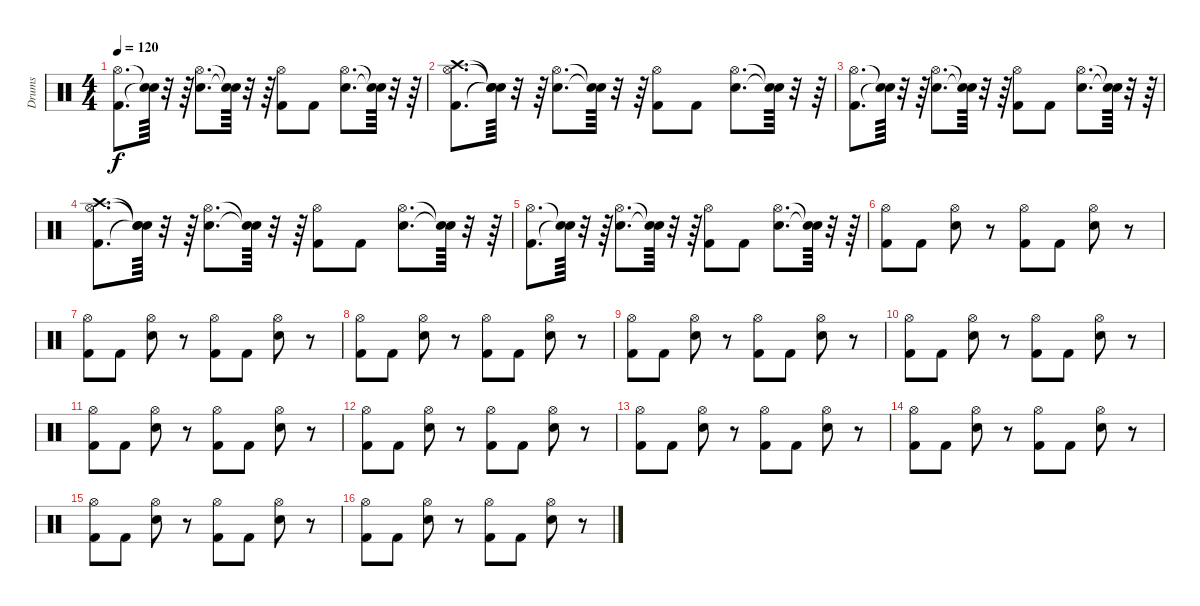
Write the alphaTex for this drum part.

\track ("Drums" "Drums") {instrument percussion}
\staff {score}
\articulation defaults
\ts (4 4)
\tempo 120
\clef neutral
\ks c
("Kick (hit) 2" "Hi-Hat (open)").8{d dy f} ("Snare (hit)"{t} "Snare (hit)"{t}).64 r.32 r.64 ("Snare (hit) 2" "Hi-Hat (open)").8{d} ("Snare (hit)"{t} "Snare (hit)"{t}).64 r.32 r.64 ("Kick (hit) 2" "Hi-Hat (open)").8 "Kick (hit) 2".8 ("Snare (hit) 2" "Hi-Hat (open)").8{d} ("Snare (hit)"{t} "Snare (hit)"{t}).64 r.32 r.64 |
("Kick (hit) 2" "Hi-Hat (open)" "Crash high (hit)").8{d} ("Snare (hit)"{t} "Snare (hit)"{t} "Snare (hit)"{t}).64 r.32 r.64 ("Snare (hit) 2" "Hi-Hat (open)").8{d} ("Snare (hit)"{t} "Snare (hit)"{t}).64 r.32 r.64 ("Kick (hit) 2" "Hi-Hat (open)").8 "Kick (hit) 2".8 ("Snare (hit) 2" "Hi-Hat (open)").8{d} ("Snare (hit)"{t} "Snare (hit)"{t}).64 r.32 r.64 |
("Kick (hit) 2" "Hi-Hat (open)").8{d} ("Snare (hit)"{t} "Snare (hit)"{t}).64 r.32 r.64 ("Snare (hit) 2" "Hi-Hat (open)").8{d} ("Snare (hit)"{t} "Snare (hit)"{t}).64 r.32 r.64 ("Kick (hit) 2" "Hi-Hat (open)").8 "Kick (hit) 2".8 ("Snare (hit) 2" "Hi-Hat (open)").8{d} ("Snare (hit)"{t} "Snare (hit)"{t}).64 r.32 r.64 |
("Kick (hit) 2" "Hi-Hat (open)" "Crash high (hit)").8{d} ("Snare (hit)"{t} "Snare (hit)"{t} "Snare (hit)"{t}).64 r.32 r.64 ("Snare (hit) 2" "Hi-Hat (open)").8{d} ("Snare (hit)"{t} "Snare (hit)"{t}).64 r.32 r.64 ("Kick (hit) 2" "Hi-Hat (open)").8 "Kick (hit) 2".8 ("Snare (hit) 2" "Hi-Hat (open)").8{d} ("Snare (hit)"{t} "Snare (hit)"{t}).64 r.32 r.64 |
("Kick (hit) 2" "Hi-Hat (open)").8{d} ("Snare (hit)"{t} "Snare (hit)"{t}).64 r.32 r.64 ("Snare (hit) 2" "Hi-Hat (open)").8{d} ("Snare (hit)"{t} "Snare (hit)"{t}).64 r.32 r.64 ("Kick (hit) 2" "Hi-Hat (open)").8 "Kick (hit) 2".8 ("Snare (hit) 2" "Hi-Hat (open)").8{d} ("Snare (hit)"{t} "Snare (hit)"{t}).64 r.32 r.64 |
("Kick (hit) 2" "Hi-Hat (open)").8 "Kick (hit) 2".8 ("Snare (hit) 2" "Hi-Hat (open)").8 r.8 ("Kick (hit) 2" "Hi-Hat (open)").8 "Kick (hit) 2".8 ("Snare (hit) 2" "Hi-Hat (open)").8 r.8 |
("Kick (hit) 2" "Hi-Hat (open)").8 "Kick (hit) 2".8 ("Snare (hit) 2" "Hi-Hat (open)").8 r.8 ("Kick (hit) 2" "Hi-Hat (open)").8 "Kick (hit) 2".8 ("Snare (hit) 2" "Hi-Hat (open)").8 r.8 |
("Kick (hit) 2" "Hi-Hat (open)").8 "Kick (hit) 2".8 ("Snare (hit) 2" "Hi-Hat (open)").8 r.8 ("Kick (hit) 2" "Hi-Hat (open)").8 "Kick (hit) 2".8 ("Snare (hit) 2" "Hi-Hat (open)").8 r.8 |
("Kick (hit) 2" "Hi-Hat (open)").8 "Kick (hit) 2".8 ("Snare (hit) 2" "Hi-Hat (open)").8 r.8 ("Kick (hit) 2" "Hi-Hat (open)").8 "Kick (hit) 2".8 ("Snare (hit) 2" "Hi-Hat (open)").8 r.8 |
("Kick (hit) 2" "Hi-Hat (open)").8 "Kick (hit) 2".8 ("Snare (hit) 2" "Hi-Hat (open)").8 r.8 ("Kick (hit) 2" "Hi-Hat (open)").8 "Kick (hit) 2".8 ("Snare (hit) 2" "Hi-Hat (open)").8 r.8 |
("Kick (hit) 2" "Hi-Hat (open)").8 "Kick (hit) 2".8 ("Snare (hit) 2" "Hi-Hat (open)").8 r.8 ("Kick (hit) 2" "Hi-Hat (open)").8 "Kick (hit) 2".8 ("Snare (hit) 2" "Hi-Hat (open)").8 r.8 |
("Kick (hit) 2" "Hi-Hat (open)").8 "Kick (hit) 2".8 ("Snare (hit) 2" "Hi-Hat (open)").8 r.8 ("Kick (hit) 2" "Hi-Hat (open)").8 "Kick (hit) 2".8 ("Snare (hit) 2" "Hi-Hat (open)").8 r.8 |
("Kick (hit) 2" "Hi-Hat (open)").8 "Kick (hit) 2".8 ("Snare (hit) 2" "Hi-Hat (open)").8 r.8 ("Kick (hit) 2" "Hi-Hat (open)").8 "Kick (hit) 2".8 ("Snare (hit) 2" "Hi-Hat (open)").8 r.8 |
("Kick (hit) 2" "Hi-Hat (open)").8 "Kick (hit) 2".8 ("Snare (hit) 2" "Hi-Hat (open)").8 r.8 ("Kick (hit) 2" "Hi-Hat (open)").8 "Kick (hit) 2".8 ("Snare (hit) 2" "Hi-Hat (open)").8 r.8 |
("Kick (hit) 2" "Hi-Hat (open)").8 "Kick (hit) 2".8 ("Snare (hit) 2" "Hi-Hat (open)").8 r.8 ("Kick (hit) 2" "Hi-Hat (open)").8 "Kick (hit) 2".8 ("Snare (hit) 2" "Hi-Hat (open)").8 r.8 |
("Kick (hit) 2" "Hi-Hat (open)").8 "Kick (hit) 2".8 ("Snare (hit) 2" "Hi-Hat (open)").8 r.8 ("Kick (hit) 2" "Hi-Hat (open)").8 "Kick (hit) 2".8 ("Snare (hit) 2" "Hi-Hat (open)").8 r.8
